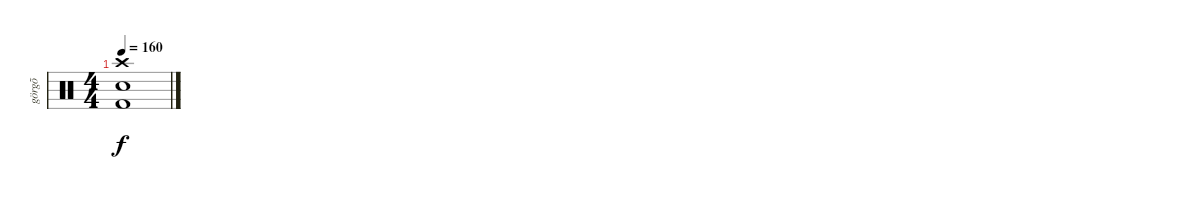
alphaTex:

\track ("görgõ" "görgõ") {instrument percussion}
\staff {score}
\articulation defaults
\ts (4 4)
\tempo 160
\clef neutral
\ks c
("Kick (hit) 2" "Snare (hit) 2" "Crash high (hit)").1{dy f}
